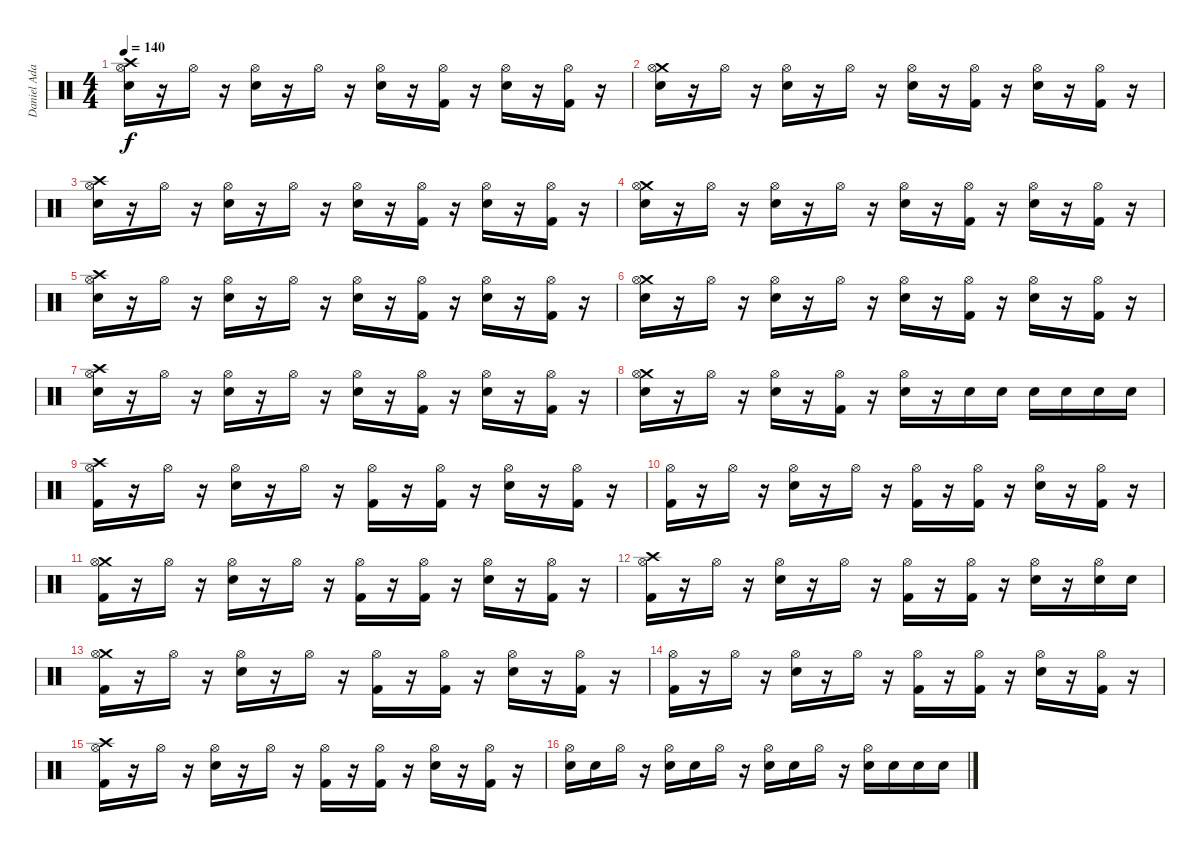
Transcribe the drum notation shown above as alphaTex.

\track ("Daniel Adair" "Daniel Ada") {instrument percussion}
\staff {score}
\articulation defaults
\ts (4 4)
\tempo 140
\clef neutral
\ks c
("Crash high (hit)" "Hi-Hat (open)" "Snare (hit) 2").16{dy f} r.16 "Hi-Hat (open)".16 r.16 ("Hi-Hat (open)" "Snare (hit) 2").16 r.16 "Hi-Hat (open)".16 r.16 ("Hi-Hat (open)" "Snare (hit) 2").16 r.16 ("Hi-Hat (open)" "Kick (hit) 2").16 r.16 ("Hi-Hat (open)" "Snare (hit) 2").16 r.16 ("Hi-Hat (open)" "Kick (hit) 2").16 r.16 |
("Crash medium (hit)" "Hi-Hat (open)" "Snare (hit) 2").16 r.16 "Hi-Hat (open)".16 r.16 ("Hi-Hat (open)" "Snare (hit) 2").16 r.16 "Hi-Hat (open)".16 r.16 ("Hi-Hat (open)" "Snare (hit) 2").16 r.16 ("Hi-Hat (open)" "Kick (hit) 2").16 r.16 ("Hi-Hat (open)" "Snare (hit) 2").16 r.16 ("Hi-Hat (open)" "Kick (hit) 2").16 r.16 |
("Crash high (hit)" "Hi-Hat (open)" "Snare (hit) 2").16 r.16 "Hi-Hat (open)".16 r.16 ("Hi-Hat (open)" "Snare (hit) 2").16 r.16 "Hi-Hat (open)".16 r.16 ("Hi-Hat (open)" "Snare (hit) 2").16 r.16 ("Hi-Hat (open)" "Kick (hit) 2").16 r.16 ("Hi-Hat (open)" "Snare (hit) 2").16 r.16 ("Hi-Hat (open)" "Kick (hit) 2").16 r.16 |
("Crash medium (hit)" "Hi-Hat (open)" "Snare (hit) 2").16 r.16 "Hi-Hat (open)".16 r.16 ("Hi-Hat (open)" "Snare (hit) 2").16 r.16 "Hi-Hat (open)".16 r.16 ("Hi-Hat (open)" "Snare (hit) 2").16 r.16 ("Hi-Hat (open)" "Kick (hit) 2").16 r.16 ("Hi-Hat (open)" "Snare (hit) 2").16 r.16 ("Hi-Hat (open)" "Kick (hit) 2").16 r.16 |
("Crash high (hit)" "Hi-Hat (open)" "Snare (hit) 2").16 r.16 "Hi-Hat (open)".16 r.16 ("Hi-Hat (open)" "Snare (hit) 2").16 r.16 "Hi-Hat (open)".16 r.16 ("Hi-Hat (open)" "Snare (hit) 2").16 r.16 ("Hi-Hat (open)" "Kick (hit) 2").16 r.16 ("Hi-Hat (open)" "Snare (hit) 2").16 r.16 ("Hi-Hat (open)" "Kick (hit) 2").16 r.16 |
("Crash medium (hit)" "Hi-Hat (open)" "Snare (hit) 2").16 r.16 "Hi-Hat (open)".16 r.16 ("Hi-Hat (open)" "Snare (hit) 2").16 r.16 "Hi-Hat (open)".16 r.16 ("Hi-Hat (open)" "Snare (hit) 2").16 r.16 ("Hi-Hat (open)" "Kick (hit) 2").16 r.16 ("Hi-Hat (open)" "Snare (hit) 2").16 r.16 ("Hi-Hat (open)" "Kick (hit) 2").16 r.16 |
("Crash high (hit)" "Hi-Hat (open)" "Snare (hit) 2").16 r.16 "Hi-Hat (open)".16 r.16 ("Hi-Hat (open)" "Snare (hit) 2").16 r.16 "Hi-Hat (open)".16 r.16 ("Hi-Hat (open)" "Snare (hit) 2").16 r.16 ("Hi-Hat (open)" "Kick (hit) 2").16 r.16 ("Hi-Hat (open)" "Snare (hit) 2").16 r.16 ("Hi-Hat (open)" "Kick (hit) 2").16 r.16 |
("Crash medium (hit)" "Hi-Hat (open)" "Snare (hit) 2").16 r.16 "Hi-Hat (open)".16 r.16 ("Hi-Hat (open)" "Snare (hit) 2").16 r.16 ("Hi-Hat (open)" "Kick (hit) 2").16 r.16 ("Hi-Hat (open)" "Snare (hit) 2").16 r.16 "Snare (hit) 2".16 "Snare (hit) 2".16 "Snare (hit) 2".16 "Snare (hit) 2".16 "Snare (hit) 2".16 "Snare (hit) 2".16 |
("Crash high (hit)" "Hi-Hat (open)" "Kick (hit) 2").16 r.16 "Hi-Hat (open)".16 r.16 ("Hi-Hat (open)" "Snare (hit) 2").16 r.16 "Hi-Hat (open)".16 r.16 ("Hi-Hat (open)" "Kick (hit) 2").16 r.16 ("Hi-Hat (open)" "Kick (hit) 2").16 r.16 ("Hi-Hat (open)" "Snare (hit) 2").16 r.16 ("Hi-Hat (open)" "Kick (hit) 2").16 r.16 |
("Hi-Hat (open)" "Kick (hit) 2").16 r.16 "Hi-Hat (open)".16 r.16 ("Hi-Hat (open)" "Snare (hit) 2").16 r.16 "Hi-Hat (open)".16 r.16 ("Hi-Hat (open)" "Kick (hit) 2").16 r.16 ("Hi-Hat (open)" "Kick (hit) 2").16 r.16 ("Hi-Hat (open)" "Snare (hit) 2").16 r.16 ("Hi-Hat (open)" "Kick (hit) 2").16 r.16 |
("Crash medium (hit)" "Hi-Hat (open)" "Kick (hit) 2").16 r.16 "Hi-Hat (open)".16 r.16 ("Hi-Hat (open)" "Snare (hit) 2").16 r.16 "Hi-Hat (open)".16 r.16 ("Hi-Hat (open)" "Kick (hit) 2").16 r.16 ("Hi-Hat (open)" "Kick (hit) 2").16 r.16 ("Hi-Hat (open)" "Snare (hit) 2").16 r.16 ("Hi-Hat (open)" "Kick (hit) 2").16 r.16 |
("Crash high (hit)" "Hi-Hat (open)" "Kick (hit) 2").16 r.16 "Hi-Hat (open)".16 r.16 ("Hi-Hat (open)" "Snare (hit) 2").16 r.16 "Hi-Hat (open)".16 r.16 ("Hi-Hat (open)" "Kick (hit) 2").16 r.16 ("Hi-Hat (open)" "Kick (hit) 2").16 r.16 ("Hi-Hat (open)" "Snare (hit) 2").16 r.16 ("Hi-Hat (open)" "Snare (hit) 2").16 "Snare (hit) 2".16 |
("Crash medium (hit)" "Hi-Hat (open)" "Kick (hit) 2").16 r.16 "Hi-Hat (open)".16 r.16 ("Hi-Hat (open)" "Snare (hit) 2").16 r.16 "Hi-Hat (open)".16 r.16 ("Hi-Hat (open)" "Kick (hit) 2").16 r.16 ("Hi-Hat (open)" "Kick (hit) 2").16 r.16 ("Hi-Hat (open)" "Snare (hit) 2").16 r.16 ("Hi-Hat (open)" "Kick (hit) 2").16 r.16 |
("Hi-Hat (open)" "Kick (hit) 2").16 r.16 "Hi-Hat (open)".16 r.16 ("Hi-Hat (open)" "Snare (hit) 2").16 r.16 "Hi-Hat (open)".16 r.16 ("Hi-Hat (open)" "Kick (hit) 2").16 r.16 ("Hi-Hat (open)" "Kick (hit) 2").16 r.16 ("Hi-Hat (open)" "Snare (hit) 2").16 r.16 ("Hi-Hat (open)" "Kick (hit) 2").16 r.16 |
("Crash high (hit)" "Hi-Hat (open)" "Kick (hit) 2").16 r.16 "Hi-Hat (open)".16 r.16 ("Hi-Hat (open)" "Snare (hit) 2").16 r.16 "Hi-Hat (open)".16 r.16 ("Hi-Hat (open)" "Kick (hit) 2").16 r.16 ("Hi-Hat (open)" "Kick (hit) 2").16 r.16 ("Hi-Hat (open)" "Snare (hit) 2").16 r.16 ("Hi-Hat (open)" "Kick (hit) 2").16 r.16 |
("Hi-Hat (open)" "Snare (hit) 2").16 "Snare (hit) 2".16 "Hi-Hat (open)".16 r.16 ("Hi-Hat (open)" "Snare (hit) 2").16 "Snare (hit) 2".16 "Hi-Hat (open)".16 r.16 ("Hi-Hat (open)" "Snare (hit) 2").16 "Snare (hit) 2".16 "Hi-Hat (open)".16 r.16 ("Hi-Hat (open)" "Snare (hit) 2").16 "Snare (hit) 2".16 "Snare (hit) 2".16 "Snare (hit) 2".16
